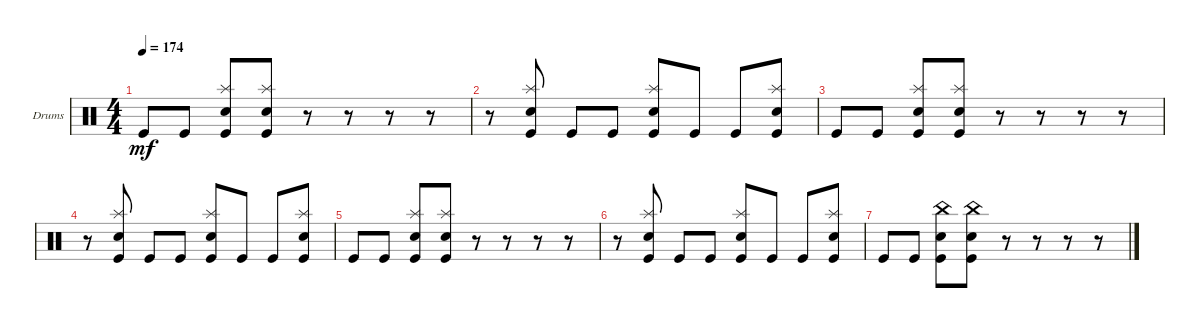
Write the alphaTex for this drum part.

\bracketExtendMode groupsimilarinstruments
\firstSystemTrackNameOrientation horizontal
\otherSystemsTrackNameOrientation horizontal
\track ("Drumkit" "Drums") {instrument percussion}
\staff {score}
\articulation defaults
\ts (4 4)
\tempo 174
\clef neutral
\scale
0.333333
\ks c "Kick (hit)".8{dy mf} "Kick (hit)".8
("Splash (hit)" "Snare (hit) 2" "Kick (hit)").8 ("Splash (hit)" "Snare (hit) 2" "Kick (hit)").8 r.8 r.8 r.8 r.8 |
\scale
0.333333 r.8 ("Splash (hit)" "Snare (hit) 2" "Kick (hit)").8 "Kick (hit)".8 "Kick (hit)".8 ("Splash (hit)" "Snare (hit) 2" "Kick (hit)").8 "Kick (hit)".8 "Kick (hit)".8 ("Splash (hit)" "Snare (hit) 2" "Kick (hit)").8 |
\scale
0.333333 "Kick (hit)".8 "Kick (hit)".8 ("Splash (hit)" "Snare (hit) 2" "Kick (hit)").8 ("Splash (hit)" "Snare (hit) 2" "Kick (hit)").8 r.8 r.8 r.8 r.8 |
\scale
0.333333 r.8 ("Splash (hit)" "Snare (hit) 2" "Kick (hit)").8 "Kick (hit)".8 "Kick (hit)".8 ("Splash (hit)" "Snare (hit) 2" "Kick (hit)").8 "Kick (hit)".8 "Kick (hit)".8 ("Splash (hit)" "Snare (hit) 2" "Kick (hit)").8 |
\scale
0.333333 "Kick (hit)".8 "Kick (hit)".8 ("Splash (hit)" "Snare (hit) 2" "Kick (hit)").8 ("Splash (hit)" "Snare (hit) 2" "Kick (hit)").8 r.8 r.8 r.8 r.8 |
\scale
0.333333 r.8 ("Splash (hit)" "Snare (hit) 2" "Kick (hit)").8 "Kick (hit)".8 "Kick (hit)".8 ("Splash (hit)" "Snare (hit) 2" "Kick (hit)").8 "Kick (hit)".8 "Kick (hit)".8 ("Splash (hit)" "Snare (hit) 2" "Kick (hit)").8 |
"Kick (hit)".8 "Kick (hit)".8 ("Snare (hit) 2" "Kick (hit)" "China (hit)").8 ("Snare (hit) 2" "Kick (hit)" "China (hit)").8 r.8 r.8 r.8 r.8
